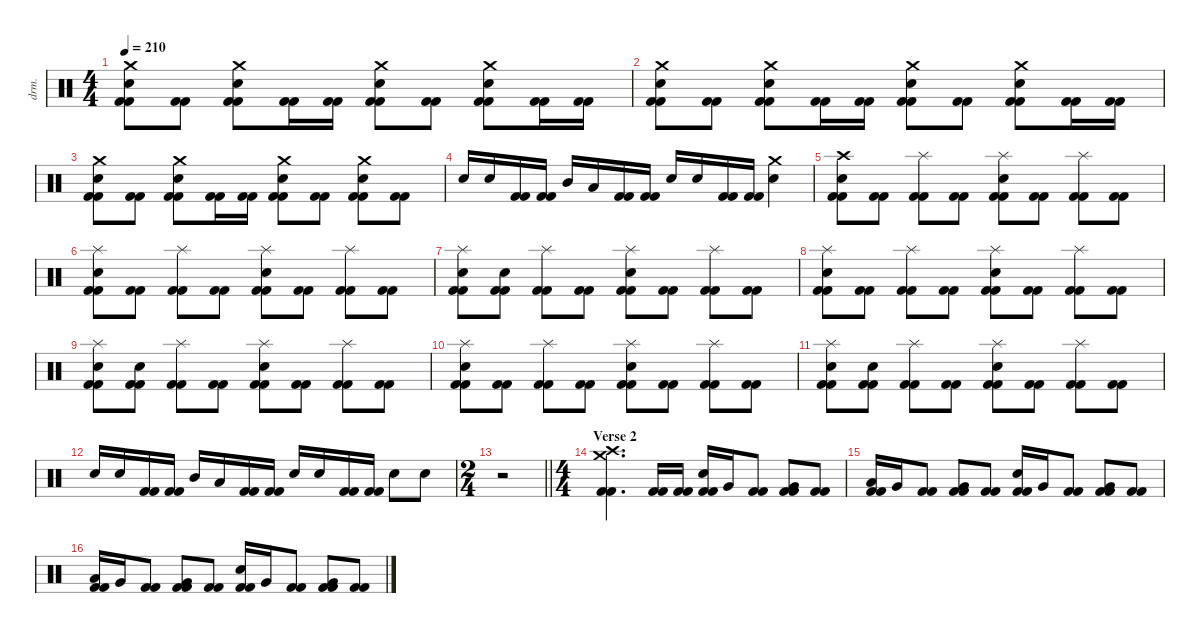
\defaultSystemsLayout 4
\hideDynamics
\bracketExtendMode nobrackets
\otherSystemsTrackNameOrientation horizontal
\track ("Chris Adler" "drm.") {instrument percussion}
\staff {score}
\articulation defaults
\ts (4 4)
\tempo 210
\clef neutral
\ks c
("Crash medium (hit)" "Snare (hit) 2" "Kick (hit) 2" "Kick (hit) 2").8{dy f} ("Kick (hit) 2" "Kick (hit) 2").8 ("Crash medium (hit)" "Snare (hit) 2" "Kick (hit) 2" "Kick (hit) 2").8 ("Kick (hit) 2" "Kick (hit) 2").16 ("Kick (hit) 2" "Kick (hit) 2").16 ("Crash medium (hit)" "Snare (hit) 2" "Kick (hit) 2" "Kick (hit) 2").8 ("Kick (hit) 2" "Kick (hit) 2").8 ("Crash medium (hit)" "Snare (hit) 2" "Kick (hit) 2" "Kick (hit) 2").8 ("Kick (hit) 2" "Kick (hit) 2").16 ("Kick (hit) 2" "Kick (hit) 2").16 |
("Crash medium (hit)" "Snare (hit) 2" "Kick (hit) 2" "Kick (hit) 2").8 ("Kick (hit) 2" "Kick (hit) 2").8 ("Crash medium (hit)" "Snare (hit) 2" "Kick (hit) 2" "Kick (hit) 2").8 ("Kick (hit) 2" "Kick (hit) 2").16 ("Kick (hit) 2" "Kick (hit) 2").16 ("Crash medium (hit)" "Snare (hit) 2" "Kick (hit) 2" "Kick (hit) 2").8 ("Kick (hit) 2" "Kick (hit) 2").8 ("Crash medium (hit)" "Snare (hit) 2" "Kick (hit) 2" "Kick (hit) 2").8 ("Kick (hit) 2" "Kick (hit) 2").16 ("Kick (hit) 2" "Kick (hit) 2").16 |
("Crash medium (hit)" "Snare (hit) 2" "Kick (hit) 2" "Kick (hit) 2").8 ("Kick (hit) 2" "Kick (hit) 2").8 ("Crash medium (hit)" "Snare (hit) 2" "Kick (hit) 2" "Kick (hit) 2").8 ("Kick (hit) 2" "Kick (hit) 2").16 ("Kick (hit) 2" "Kick (hit) 2").16 ("Crash medium (hit)" "Snare (hit) 2" "Kick (hit) 2" "Kick (hit) 2").8 ("Kick (hit) 2" "Kick (hit) 2").8 ("Crash medium (hit)" "Snare (hit) 2" "Kick (hit) 2" "Kick (hit) 2").8 ("Kick (hit) 2" "Kick (hit) 2").8 |
"Snare (hit) 2".16 "Snare (hit) 2".16 ("Kick (hit) 2" "Kick (hit) 2").16 ("Kick (hit) 2" "Kick (hit) 2").16 "Mid Tom (hit)".16 "Low Tom (hit)".16 ("Kick (hit) 2" "Kick (hit) 2").16 ("Kick (hit) 2" "Kick (hit) 2").16 "Snare (hit) 2".16 "Snare (hit) 2".16 ("Kick (hit) 2" "Kick (hit) 2").16 ("Kick (hit) 2" "Kick (hit) 2").16 ("Crash medium (hit)" "Snare (hit) 2").4 |
("Crash high (hit)" "Snare (hit) 2" "Kick (hit) 2" "Kick (hit) 2").8 ("Kick (hit) 2" "Kick (hit) 2").8 ("Splash (hit)" "Kick (hit) 2" "Kick (hit) 2").8 ("Kick (hit) 2" "Kick (hit) 2").8 ("Splash (hit)" "Snare (hit) 2" "Kick (hit) 2" "Kick (hit) 2").8 ("Kick (hit) 2" "Kick (hit) 2").8 ("Splash (hit)" "Kick (hit) 2" "Kick (hit) 2").8 ("Kick (hit) 2" "Kick (hit) 2").8 |
("Splash (hit)" "Snare (hit) 2" "Kick (hit) 2" "Kick (hit) 2").8 ("Kick (hit) 2" "Kick (hit) 2").8 ("Splash (hit)" "Kick (hit) 2" "Kick (hit) 2").8 ("Kick (hit) 2" "Kick (hit) 2").8 ("Splash (hit)" "Snare (hit) 2" "Kick (hit) 2" "Kick (hit) 2").8 ("Kick (hit) 2" "Kick (hit) 2").8 ("Splash (hit)" "Kick (hit) 2" "Kick (hit) 2").8 ("Kick (hit) 2" "Kick (hit) 2").8 |
("Splash (hit)" "Snare (hit) 2" "Kick (hit) 2" "Kick (hit) 2").8 ("Snare (hit) 2" "Kick (hit) 2" "Kick (hit) 2").8 ("Splash (hit)" "Kick (hit) 2" "Kick (hit) 2").8 ("Kick (hit) 2" "Kick (hit) 2").8 ("Splash (hit)" "Snare (hit) 2" "Kick (hit) 2" "Kick (hit) 2").8 ("Kick (hit) 2" "Kick (hit) 2").8 ("Splash (hit)" "Kick (hit) 2" "Kick (hit) 2").8 ("Kick (hit) 2" "Kick (hit) 2").8 |
("Splash (hit)" "Snare (hit) 2" "Kick (hit) 2" "Kick (hit) 2").8 ("Kick (hit) 2" "Kick (hit) 2").8 ("Splash (hit)" "Kick (hit) 2" "Kick (hit) 2").8 ("Kick (hit) 2" "Kick (hit) 2").8 ("Splash (hit)" "Snare (hit) 2" "Kick (hit) 2" "Kick (hit) 2").8 ("Kick (hit) 2" "Kick (hit) 2").8 ("Splash (hit)" "Kick (hit) 2" "Kick (hit) 2").8 ("Kick (hit) 2" "Kick (hit) 2").8 |
("Splash (hit)" "Snare (hit) 2" "Kick (hit) 2" "Kick (hit) 2").8 ("Snare (hit) 2" "Kick (hit) 2" "Kick (hit) 2").8 ("Splash (hit)" "Kick (hit) 2" "Kick (hit) 2").8 ("Kick (hit) 2" "Kick (hit) 2").8 ("Splash (hit)" "Snare (hit) 2" "Kick (hit) 2" "Kick (hit) 2").8 ("Kick (hit) 2" "Kick (hit) 2").8 ("Splash (hit)" "Kick (hit) 2" "Kick (hit) 2").8 ("Kick (hit) 2" "Kick (hit) 2").8 |
("Splash (hit)" "Snare (hit) 2" "Kick (hit) 2" "Kick (hit) 2").8 ("Kick (hit) 2" "Kick (hit) 2").8 ("Splash (hit)" "Kick (hit) 2" "Kick (hit) 2").8 ("Kick (hit) 2" "Kick (hit) 2").8 ("Splash (hit)" "Snare (hit) 2" "Kick (hit) 2" "Kick (hit) 2").8 ("Kick (hit) 2" "Kick (hit) 2").8 ("Splash (hit)" "Kick (hit) 2" "Kick (hit) 2").8 ("Kick (hit) 2" "Kick (hit) 2").8 |
("Splash (hit)" "Snare (hit) 2" "Kick (hit) 2" "Kick (hit) 2").8 ("Snare (hit) 2" "Kick (hit) 2" "Kick (hit) 2").8 ("Splash (hit)" "Kick (hit) 2" "Kick (hit) 2").8 ("Kick (hit) 2" "Kick (hit) 2").8 ("Splash (hit)" "Snare (hit) 2" "Kick (hit) 2" "Kick (hit) 2").8 ("Kick (hit) 2" "Kick (hit) 2").8 ("Splash (hit)" "Kick (hit) 2" "Kick (hit) 2").8 ("Kick (hit) 2" "Kick (hit) 2").8 |
"Snare (hit) 2".16 "Snare (hit) 2".16 ("Kick (hit) 2" "Kick (hit) 2").16 ("Kick (hit) 2" "Kick (hit) 2").16 "Mid Tom (hit)".16 "Low Tom (hit)".16 ("Kick (hit) 2" "Kick (hit) 2").16 ("Kick (hit) 2" "Kick (hit) 2").16 "Snare (hit) 2".16 "Snare (hit) 2".16 ("Kick (hit) 2" "Kick (hit) 2").16 ("Kick (hit) 2" "Kick (hit) 2").16 "Snare (hit) 2".8 "Snare (hit) 2".8 |
\ts (2 4)
\beaming (8 2 2)
\barLineRight lightlight
r.2 |
\ts (4 4)
\beaming (8 2 2 2 2)
\section ("" "Verse 2")
("Crash medium (hit)" "Crash high (hit)" "Kick (hit) 2" "Kick (hit) 2").4{d} ("Kick (hit) 2" "Kick (hit) 2").16 ("Kick (hit) 2" "Kick (hit) 2").16 ("Snare (hit) 2" "Kick (hit) 2" "Kick (hit) 2").16 "Very Low Tom (hit)".16 ("Kick (hit) 2" "Kick (hit) 2").8 ("Very Low Tom (hit)" "Kick (hit) 2" "Kick (hit) 2").8 ("Kick (hit) 2" "Kick (hit) 2").8 |
("Low Tom (hit)" "Kick (hit) 2" "Kick (hit) 2").16 "Very Low Tom (hit)".16 ("Kick (hit) 2" "Kick (hit) 2").8 ("Very Low Tom (hit)" "Kick (hit) 2" "Kick (hit) 2").8 ("Kick (hit) 2" "Kick (hit) 2").8 ("Snare (hit) 2" "Kick (hit) 2" "Kick (hit) 2").16 "Very Low Tom (hit)".16 ("Kick (hit) 2" "Kick (hit) 2").8 ("Very Low Tom (hit)" "Kick (hit) 2" "Kick (hit) 2").8 ("Kick (hit) 2" "Kick (hit) 2").8 |
("Low Tom (hit)" "Kick (hit) 2" "Kick (hit) 2").16 "Very Low Tom (hit)".16 ("Kick (hit) 2" "Kick (hit) 2").8 ("Very Low Tom (hit)" "Kick (hit) 2" "Kick (hit) 2").8 ("Kick (hit) 2" "Kick (hit) 2").8 ("Snare (hit) 2" "Kick (hit) 2" "Kick (hit) 2").16 "Very Low Tom (hit)".16 ("Kick (hit) 2" "Kick (hit) 2").8 ("Very Low Tom (hit)" "Kick (hit) 2" "Kick (hit) 2").8 ("Kick (hit) 2" "Kick (hit) 2").8
